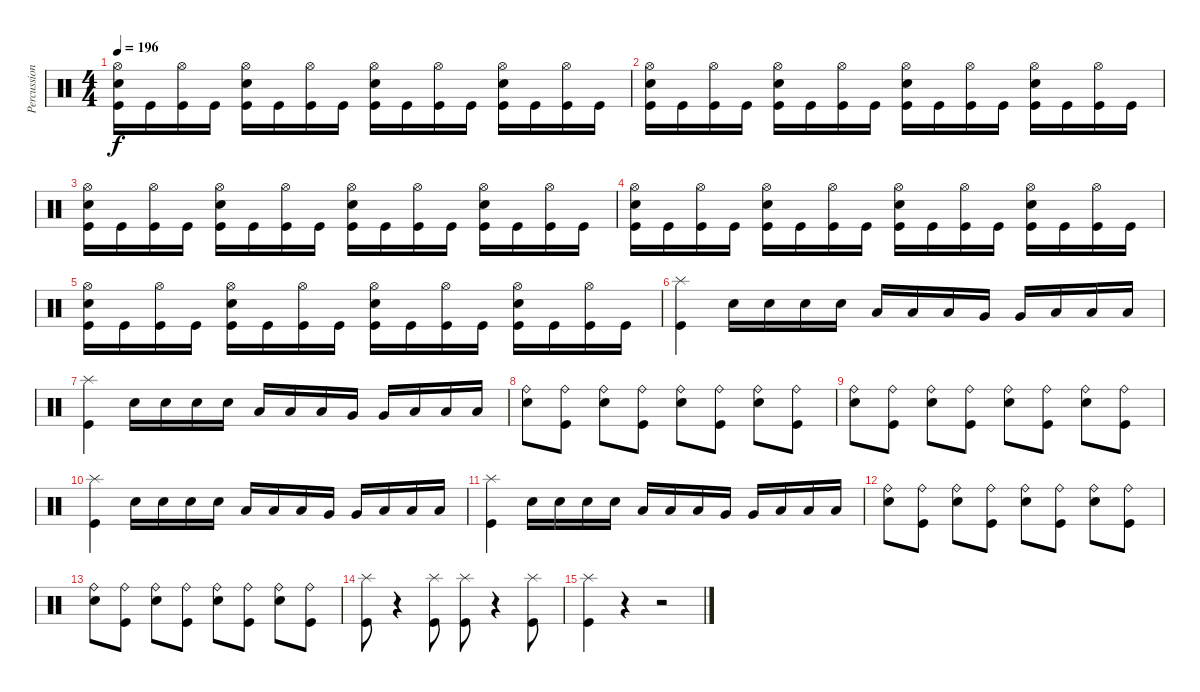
\track ("Percussions" "Percussion") {instrument percussion}
\staff {score}
\articulation defaults
\ts (4 4)
\tempo 196
\clef neutral
\ks c
("Kick (hit)" "Electric Snare (hit)" "Hi-Hat (open)").16{dy f} "Kick (hit)".16 ("Kick (hit)" "Hi-Hat (open)").16 "Kick (hit)".16 ("Kick (hit)" "Electric Snare (hit)" "Hi-Hat (open)").16 "Kick (hit)".16 ("Kick (hit)" "Hi-Hat (open)").16 "Kick (hit)".16 ("Kick (hit)" "Electric Snare (hit)" "Hi-Hat (open)").16 "Kick (hit)".16 ("Kick (hit)" "Hi-Hat (open)").16 "Kick (hit)".16 ("Kick (hit)" "Electric Snare (hit)" "Hi-Hat (open)").16 "Kick (hit)".16 ("Kick (hit)" "Hi-Hat (open)").16 "Kick (hit)".16 |
("Kick (hit)" "Electric Snare (hit)" "Hi-Hat (open)").16 "Kick (hit)".16 ("Kick (hit)" "Hi-Hat (open)").16 "Kick (hit)".16 ("Kick (hit)" "Electric Snare (hit)" "Hi-Hat (open)").16 "Kick (hit)".16 ("Kick (hit)" "Hi-Hat (open)").16 "Kick (hit)".16 ("Kick (hit)" "Electric Snare (hit)" "Hi-Hat (open)").16 "Kick (hit)".16 ("Kick (hit)" "Hi-Hat (open)").16 "Kick (hit)".16 ("Kick (hit)" "Electric Snare (hit)" "Hi-Hat (open)").16 "Kick (hit)".16 ("Kick (hit)" "Hi-Hat (open)").16 "Kick (hit)".16 |
("Kick (hit)" "Electric Snare (hit)" "Hi-Hat (open)").16 "Kick (hit)".16 ("Kick (hit)" "Hi-Hat (open)").16 "Kick (hit)".16 ("Kick (hit)" "Electric Snare (hit)" "Hi-Hat (open)").16 "Kick (hit)".16 ("Kick (hit)" "Hi-Hat (open)").16 "Kick (hit)".16 ("Kick (hit)" "Electric Snare (hit)" "Hi-Hat (open)").16 "Kick (hit)".16 ("Kick (hit)" "Hi-Hat (open)").16 "Kick (hit)".16 ("Kick (hit)" "Electric Snare (hit)" "Hi-Hat (open)").16 "Kick (hit)".16 ("Kick (hit)" "Hi-Hat (open)").16 "Kick (hit)".16 |
("Kick (hit)" "Electric Snare (hit)" "Hi-Hat (open)").16 "Kick (hit)".16 ("Kick (hit)" "Hi-Hat (open)").16 "Kick (hit)".16 ("Kick (hit)" "Electric Snare (hit)" "Hi-Hat (open)").16 "Kick (hit)".16 ("Kick (hit)" "Hi-Hat (open)").16 "Kick (hit)".16 ("Kick (hit)" "Electric Snare (hit)" "Hi-Hat (open)").16 "Kick (hit)".16 ("Kick (hit)" "Hi-Hat (open)").16 "Kick (hit)".16 ("Kick (hit)" "Electric Snare (hit)" "Hi-Hat (open)").16 "Kick (hit)".16 ("Kick (hit)" "Hi-Hat (open)").16 "Kick (hit)".16 |
("Kick (hit)" "Electric Snare (hit)" "Hi-Hat (open)").16 "Kick (hit)".16 ("Kick (hit)" "Hi-Hat (open)").16 "Kick (hit)".16 ("Kick (hit)" "Electric Snare (hit)" "Hi-Hat (open)").16 "Kick (hit)".16 ("Kick (hit)" "Hi-Hat (open)").16 "Kick (hit)".16 ("Kick (hit)" "Electric Snare (hit)" "Hi-Hat (open)").16 "Kick (hit)".16 ("Kick (hit)" "Hi-Hat (open)").16 "Kick (hit)".16 ("Kick (hit)" "Electric Snare (hit)" "Hi-Hat (open)").16 "Kick (hit)".16 ("Kick (hit)" "Hi-Hat (open)").16 "Kick (hit)".16 |
("Kick (hit)" "Splash (hit)").4 "Electric Snare (hit)".16 "Electric Snare (hit)".16 "Electric Snare (hit)".16 "Electric Snare (hit)".16 "Low Tom (hit)".16 "Low Tom (hit)".16 "Low Tom (hit)".16 "Very Low Tom (hit)".16 "Very Low Tom (hit)".16 "Low Floor Tom (hit)".16 "Low Floor Tom (hit)".16 "Low Floor Tom (hit)".16 |
("Kick (hit)" "Splash (hit)").4 "Electric Snare (hit)".16 "Electric Snare (hit)".16 "Electric Snare (hit)".16 "Electric Snare (hit)".16 "Low Tom (hit)".16 "Low Tom (hit)".16 "Low Tom (hit)".16 "Very Low Tom (hit)".16 "Very Low Tom (hit)".16 "Low Floor Tom (hit)".16 "Low Floor Tom (hit)".16 "Low Floor Tom (hit)".16 |
("Electric Snare (hit)" "Ride (bell)").8 ("Kick (hit)" "Ride (bell)").8 ("Electric Snare (hit)" "Ride (bell)").8 ("Kick (hit)" "Ride (bell)").8 ("Electric Snare (hit)" "Ride (bell)").8 ("Kick (hit)" "Ride (bell)").8 ("Electric Snare (hit)" "Ride (bell)").8 ("Kick (hit)" "Ride (bell)").8 |
("Electric Snare (hit)" "Ride (bell)").8 ("Kick (hit)" "Ride (bell)").8 ("Electric Snare (hit)" "Ride (bell)").8 ("Kick (hit)" "Ride (bell)").8 ("Electric Snare (hit)" "Ride (bell)").8 ("Kick (hit)" "Ride (bell)").8 ("Electric Snare (hit)" "Ride (bell)").8 ("Kick (hit)" "Ride (bell)").8 |
("Kick (hit)" "Splash (hit)").4 "Electric Snare (hit)".16 "Electric Snare (hit)".16 "Electric Snare (hit)".16 "Electric Snare (hit)".16 "Low Tom (hit)".16 "Low Tom (hit)".16 "Low Tom (hit)".16 "Very Low Tom (hit)".16 "Very Low Tom (hit)".16 "Low Floor Tom (hit)".16 "Low Floor Tom (hit)".16 "Low Floor Tom (hit)".16 |
("Kick (hit)" "Splash (hit)").4 "Electric Snare (hit)".16 "Electric Snare (hit)".16 "Electric Snare (hit)".16 "Electric Snare (hit)".16 "Low Tom (hit)".16 "Low Tom (hit)".16 "Low Tom (hit)".16 "Very Low Tom (hit)".16 "Very Low Tom (hit)".16 "Low Floor Tom (hit)".16 "Low Floor Tom (hit)".16 "Low Floor Tom (hit)".16 |
("Electric Snare (hit)" "Ride (bell)").8 ("Kick (hit)" "Ride (bell)").8 ("Electric Snare (hit)" "Ride (bell)").8 ("Kick (hit)" "Ride (bell)").8 ("Electric Snare (hit)" "Ride (bell)").8 ("Kick (hit)" "Ride (bell)").8 ("Electric Snare (hit)" "Ride (bell)").8 ("Kick (hit)" "Ride (bell)").8 |
("Electric Snare (hit)" "Ride (bell)").8 ("Kick (hit)" "Ride (bell)").8 ("Electric Snare (hit)" "Ride (bell)").8 ("Kick (hit)" "Ride (bell)").8 ("Electric Snare (hit)" "Ride (bell)").8 ("Kick (hit)" "Ride (bell)").8 ("Electric Snare (hit)" "Ride (bell)").8 ("Kick (hit)" "Ride (bell)").8 |
("Kick (hit)" "Splash (hit)").8 r.4 ("Kick (hit)" "Splash (hit)").8 ("Kick (hit)" "Splash (hit)").8 r.4 ("Kick (hit)" "Splash (hit)").8 |
("Kick (hit)" "Splash (hit)").4 r.4 r.2
